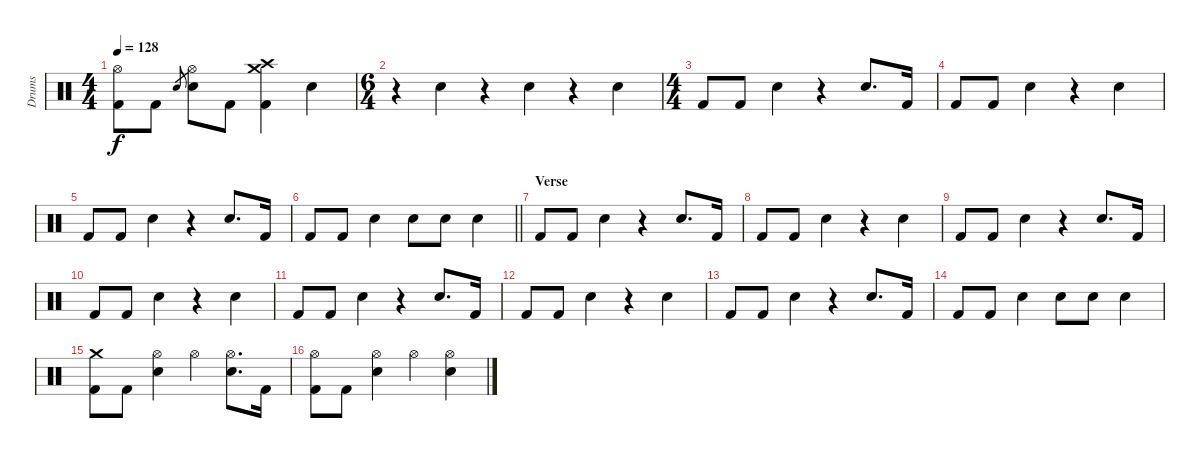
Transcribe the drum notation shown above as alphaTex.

\track ("Drums" "Drums") {instrument percussion}
\staff {score}
\articulation defaults
\ts (4 4)
\tempo 128
\clef neutral
\ks c
("Hi-Hat (open)" "Kick (hit) 2").8{dy f} "Kick (hit) 2".8 "Electric Snare (hit)".8{gr} ("Hi-Hat (open)" "Electric Snare (hit)").8 "Kick (hit) 2".8 ("Crash high (hit)" "Crash medium (hit)" "Kick (hit) 2").4 "Electric Snare (hit)".4 |
\ts (6 4)
r.4 "Electric Snare (hit)".4 r.4 "Electric Snare (hit)".4 r.4 "Electric Snare (hit)".4 |
\ts (4 4)
"Kick (hit) 2".8 "Kick (hit) 2".8 "Electric Snare (hit)".4 r.4 "Electric Snare (hit)".8{d} "Kick (hit) 2".16 |
"Kick (hit) 2".8 "Kick (hit) 2".8 "Electric Snare (hit)".4 r.4 "Electric Snare (hit)".4 |
"Kick (hit) 2".8 "Kick (hit) 2".8 "Electric Snare (hit)".4 r.4 "Electric Snare (hit)".8{d} "Kick (hit) 2".16 |
\barLineRight lightlight "Kick (hit) 2".8 "Kick (hit) 2".8 "Electric Snare (hit)".4 "Electric Snare (hit)".8 "Electric Snare (hit)".8 "Electric Snare (hit)".4
|
\section ("" "Verse")
"Kick (hit) 2".8 "Kick (hit) 2".8 "Electric Snare (hit)".4 r.4 "Electric Snare (hit)".8{d} "Kick (hit) 2".16 |
"Kick (hit) 2".8 "Kick (hit) 2".8 "Electric Snare (hit)".4 r.4 "Electric Snare (hit)".4 |
"Kick (hit) 2".8 "Kick (hit) 2".8 "Electric Snare (hit)".4 r.4 "Electric Snare (hit)".8{d} "Kick (hit) 2".16 |
"Kick (hit) 2".8 "Kick (hit) 2".8 "Electric Snare (hit)".4 r.4 "Electric Snare (hit)".4 |
"Kick (hit) 2".8 "Kick (hit) 2".8 "Electric Snare (hit)".4 r.4 "Electric Snare (hit)".8{d} "Kick (hit) 2".16 |
"Kick (hit) 2".8 "Kick (hit) 2".8 "Electric Snare (hit)".4 r.4 "Electric Snare (hit)".4 |
"Kick (hit) 2".8 "Kick (hit) 2".8 "Electric Snare (hit)".4 r.4 "Electric Snare (hit)".8{d} "Kick (hit) 2".16 |
"Kick (hit) 2".8 "Kick (hit) 2".8 "Electric Snare (hit)".4 "Electric Snare (hit)".8 "Electric Snare (hit)".8 "Electric Snare (hit)".4 |
("Crash medium (hit)" "Kick (hit) 2").8 "Kick (hit) 2".8 ("Hi-Hat (open)" "Electric Snare (hit)").4 "Hi-Hat (open)".4 ("Hi-Hat (open)" "Electric Snare (hit)").8{d} "Kick (hit) 2".16 |
("Hi-Hat (open)" "Kick (hit) 2").8 "Kick (hit) 2".8 ("Hi-Hat (open)" "Electric Snare (hit)").4 "Hi-Hat (open)".4 ("Hi-Hat (open)" "Electric Snare (hit)").4
